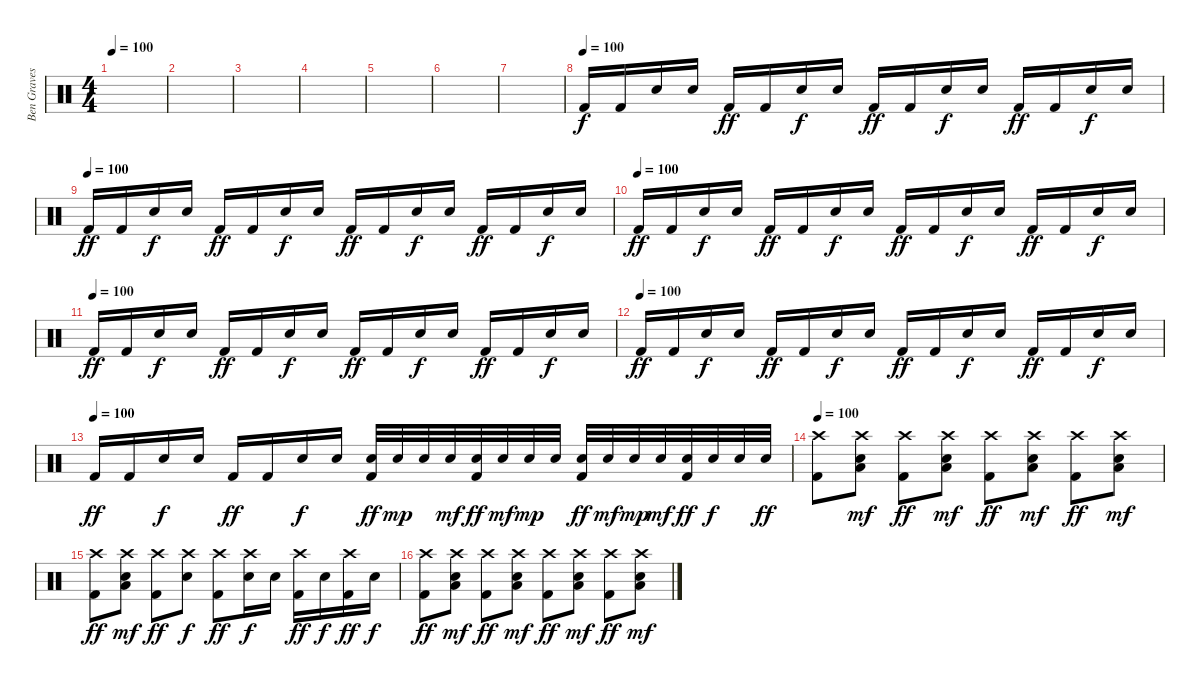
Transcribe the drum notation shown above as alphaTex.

\track ("Ben Graves (theghoul)" "Ben Graves") {instrument percussion}
\staff {score}
\articulation defaults
\ts (4 4)
\tempo 100
\tempo 120
\tempo 100
\clef neutral
\ks c
|
|
|
|
|
|
|
\tempo (100)
"Kick (hit) 2".16 "Kick (hit) 2".16 "Snare (hit) 2".16{dy f} "Snare (hit) 2".16 "Kick (hit) 2".16{dy ff} "Kick (hit) 2".16 "Snare (hit) 2".16{dy f} "Snare (hit) 2".16 "Kick (hit) 2".16{dy ff} "Kick (hit) 2".16 "Snare (hit) 2".16{dy f} "Snare (hit) 2".16 "Kick (hit) 2".16{dy ff} "Kick (hit) 2".16 "Snare (hit) 2".16{dy f} "Snare (hit) 2".16 |
\tempo (100)
"Kick (hit) 2".16{dy ff} "Kick (hit) 2".16 "Snare (hit) 2".16{dy f} "Snare (hit) 2".16 "Kick (hit) 2".16{dy ff} "Kick (hit) 2".16 "Snare (hit) 2".16{dy f} "Snare (hit) 2".16 "Kick (hit) 2".16{dy ff} "Kick (hit) 2".16 "Snare (hit) 2".16{dy f} "Snare (hit) 2".16 "Kick (hit) 2".16{dy ff} "Kick (hit) 2".16 "Snare (hit) 2".16{dy f} "Snare (hit) 2".16 |
\tempo (100)
"Kick (hit) 2".16{dy ff} "Kick (hit) 2".16 "Snare (hit) 2".16{dy f} "Snare (hit) 2".16 "Kick (hit) 2".16{dy ff} "Kick (hit) 2".16 "Snare (hit) 2".16{dy f} "Snare (hit) 2".16 "Kick (hit) 2".16{dy ff} "Kick (hit) 2".16 "Snare (hit) 2".16{dy f} "Snare (hit) 2".16 "Kick (hit) 2".16{dy ff} "Kick (hit) 2".16 "Snare (hit) 2".16{dy f} "Snare (hit) 2".16 |
\tempo (100)
"Kick (hit) 2".16{dy ff} "Kick (hit) 2".16 "Snare (hit) 2".16{dy f} "Snare (hit) 2".16 "Kick (hit) 2".16{dy ff} "Kick (hit) 2".16 "Snare (hit) 2".16{dy f} "Snare (hit) 2".16 "Kick (hit) 2".16{dy ff} "Kick (hit) 2".16 "Snare (hit) 2".16{dy f} "Snare (hit) 2".16 "Kick (hit) 2".16{dy ff} "Kick (hit) 2".16 "Snare (hit) 2".16{dy f} "Snare (hit) 2".16 |
\tempo (100)
"Kick (hit) 2".16{dy ff} "Kick (hit) 2".16 "Snare (hit) 2".16{dy f} "Snare (hit) 2".16 "Kick (hit) 2".16{dy ff} "Kick (hit) 2".16 "Snare (hit) 2".16{dy f} "Snare (hit) 2".16 "Kick (hit) 2".16{dy ff} "Kick (hit) 2".16 "Snare (hit) 2".16{dy f} "Snare (hit) 2".16 "Kick (hit) 2".16{dy ff} "Kick (hit) 2".16 "Snare (hit) 2".16{dy f} "Snare (hit) 2".16 |
\tempo (100)
"Kick (hit) 2".16{dy ff} "Kick (hit) 2".16 "Snare (hit) 2".16{dy f} "Snare (hit) 2".16 "Kick (hit) 2".16{dy ff} "Kick (hit) 2".16 "Snare (hit) 2".16{dy f} "Snare (hit) 2".16 ("Snare (hit) 2" "Kick (hit) 2").32{dy ff} "Snare (hit) 2".32{dy mp} "Snare (hit) 2".32 "Snare (hit) 2".32{dy mf} ("Snare (hit) 2" "Kick (hit) 2").32{dy ff} "Snare (hit) 2".32{dy mf} "Snare (hit) 2".32{dy mp} "Snare (hit) 2".32 ("Snare (hit) 2" "Kick (hit) 2").32{dy ff} "Snare (hit) 2".32{dy mf} "Snare (hit) 2".32{dy mp} "Snare (hit) 2".32{dy mf} ("Snare (hit) 2" "Kick (hit) 2").32{dy ff} "Snare (hit) 2".32{dy f} "Snare (hit) 2".32 "Snare (hit) 2".32{dy ff} |
\tempo 100
("Crash high (hit)" "Kick (hit) 2").8 ("Crash high (hit)" "Snare (hit) 2" "Low Tom (hit)").8{dy mf} ("Crash high (hit)" "Kick (hit) 2").8{dy ff} ("Crash high (hit)" "Snare (hit) 2" "Low Tom (hit)").8{dy mf} ("Crash high (hit)" "Kick (hit) 2").8{dy ff} ("Crash high (hit)" "Snare (hit) 2" "Low Tom (hit)").8{dy mf} ("Crash high (hit)" "Kick (hit) 2").8{dy ff} ("Crash high (hit)" "Snare (hit) 2" "Low Tom (hit)").8{dy mf} |
("Crash high (hit)" "Kick (hit) 2").8{dy ff} ("Crash high (hit)" "Snare (hit) 2" "Low Tom (hit)").8{dy mf} ("Crash high (hit)" "Kick (hit) 2").8{dy ff} ("Crash high (hit)" "Snare (hit) 2").8{dy f} ("Crash high (hit)" "Kick (hit) 2").8{dy ff} ("Crash high (hit)" "Snare (hit) 2").16{dy f} "Snare (hit) 2".16 ("Crash high (hit)" "Kick (hit) 2").16{dy ff} "Snare (hit) 2".16{dy f} ("Crash high (hit)" "Kick (hit) 2").16{dy ff} "Snare (hit) 2".16{dy f} |
("Crash high (hit)" "Kick (hit) 2").8{dy ff} ("Crash high (hit)" "Snare (hit) 2" "Low Tom (hit)").8{dy mf} ("Crash high (hit)" "Kick (hit) 2").8{dy ff} ("Crash high (hit)" "Snare (hit) 2" "Low Tom (hit)").8{dy mf} ("Crash high (hit)" "Kick (hit) 2").8{dy ff} ("Crash high (hit)" "Snare (hit) 2" "Low Tom (hit)").8{dy mf} ("Crash high (hit)" "Kick (hit) 2").8{dy ff} ("Crash high (hit)" "Snare (hit) 2" "Low Tom (hit)").8{dy mf}
